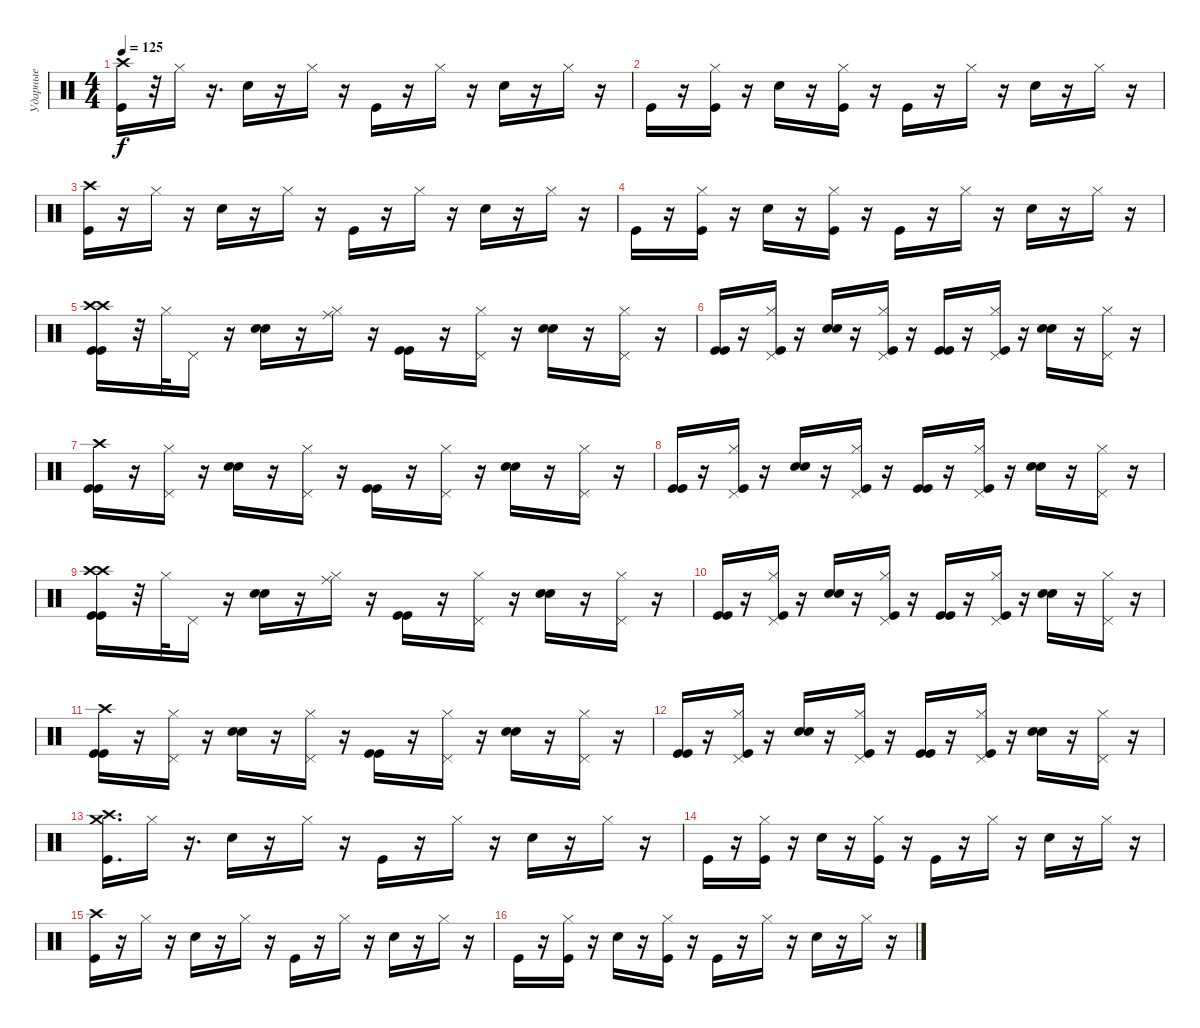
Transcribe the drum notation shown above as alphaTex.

\track ("Ударные" "Ударные") {instrument percussion}
\staff {score}
\articulation defaults
\ts (4 4)
\tempo 125
\clef neutral
\ks c
("Crash high (hit)" "Kick (hit)").16{dy f} r.32 "Hi-Hat (closed)".16 r.16{d} "Electric Snare (hit)".16 r.16 "Hi-Hat (closed)".16 r.16 "Kick (hit)".16 r.16 "Hi-Hat (closed)".16 r.16 "Electric Snare (hit)".16 r.16 "Hi-Hat (closed)".16 r.16 |
"Kick (hit)".16 r.16 ("Hi-Hat (closed)" "Kick (hit)").16 r.16 "Electric Snare (hit)".16 r.16 ("Hi-Hat (closed)" "Kick (hit)").16 r.16 "Kick (hit)".16 r.16 "Hi-Hat (closed)".16 r.16 "Electric Snare (hit)".16 r.16 "Hi-Hat (closed)".16 r.16 |
("Crash high (hit)" "Kick (hit)").16 r.16 "Hi-Hat (closed)".16 r.16 "Electric Snare (hit)".16 r.16 "Hi-Hat (closed)".16 r.16 "Kick (hit)".16 r.16 "Hi-Hat (closed)".16 r.16 "Electric Snare (hit)".16 r.16 "Hi-Hat (closed)".16 r.16 |
"Kick (hit)".16 r.16 ("Hi-Hat (closed)" "Kick (hit)").16 r.16 "Electric Snare (hit)".16 r.16 ("Hi-Hat (closed)" "Kick (hit)").16 r.16 "Kick (hit)".16 r.16 "Hi-Hat (closed)".16 r.16 "Electric Snare (hit)".16 r.16 "Hi-Hat (closed)".16 r.16 |
("Kick (hit)" "Crash high (hit)" "Crash high (hit)" "Kick (hit)").16 r.32 "Hi-Hat (closed)".32 "Pedal Hi-Hat (hit)".16 r.16 ("Electric Snare (hit)" "Electric Snare (hit)").16 r.16 ("Ride (middle)" "Hi-Hat (closed)").16 r.16 ("Kick (hit)" "Kick (hit)").16 r.16 ("Pedal Hi-Hat (hit)" "Hi-Hat (closed)").16 r.16 ("Electric Snare (hit)" "Electric Snare (hit)").16 r.16 ("Pedal Hi-Hat (hit)" "Hi-Hat (closed)").16 r.16 |
("Kick (hit)" "Kick (hit)").16 r.16 ("Pedal Hi-Hat (hit)" "Hi-Hat (closed)" "Kick (hit)").16 r.16 ("Electric Snare (hit)" "Electric Snare (hit)").16 r.16 ("Pedal Hi-Hat (hit)" "Hi-Hat (closed)" "Kick (hit)").16 r.16 ("Kick (hit)" "Kick (hit)").16 r.16 ("Kick (hit)" "Pedal Hi-Hat (hit)" "Hi-Hat (closed)").16 r.16 ("Electric Snare (hit)" "Electric Snare (hit)").16 r.16 ("Pedal Hi-Hat (hit)" "Hi-Hat (closed)").16 r.16 |
("Kick (hit)" "Crash high (hit)" "Kick (hit)").16 r.16 ("Pedal Hi-Hat (hit)" "Hi-Hat (closed)").16 r.16 ("Electric Snare (hit)" "Electric Snare (hit)").16 r.16 ("Pedal Hi-Hat (hit)" "Hi-Hat (closed)").16 r.16 ("Kick (hit)" "Kick (hit)").16 r.16 ("Pedal Hi-Hat (hit)" "Hi-Hat (closed)").16 r.16 ("Electric Snare (hit)" "Electric Snare (hit)").16 r.16 ("Pedal Hi-Hat (hit)" "Hi-Hat (closed)").16 r.16 |
("Kick (hit)" "Kick (hit)").16 r.16 ("Pedal Hi-Hat (hit)" "Hi-Hat (closed)" "Kick (hit)").16 r.16 ("Electric Snare (hit)" "Electric Snare (hit)").16 r.16 ("Pedal Hi-Hat (hit)" "Hi-Hat (closed)" "Kick (hit)").16 r.16 ("Kick (hit)" "Kick (hit)").16 r.16 ("Kick (hit)" "Pedal Hi-Hat (hit)" "Hi-Hat (closed)").16 r.16 ("Electric Snare (hit)" "Electric Snare (hit)").16 r.16 ("Pedal Hi-Hat (hit)" "Hi-Hat (closed)").16 r.16 |
("Kick (hit)" "Crash high (hit)" "Crash high (hit)" "Kick (hit)").16 r.32 "Hi-Hat (closed)".32 "Pedal Hi-Hat (hit)".16 r.16 ("Electric Snare (hit)" "Electric Snare (hit)").16 r.16 ("Ride (middle)" "Hi-Hat (closed)").16 r.16 ("Kick (hit)" "Kick (hit)").16 r.16 ("Pedal Hi-Hat (hit)" "Hi-Hat (closed)").16 r.16 ("Electric Snare (hit)" "Electric Snare (hit)").16 r.16 ("Pedal Hi-Hat (hit)" "Hi-Hat (closed)").16 r.16 |
("Kick (hit)" "Kick (hit)").16 r.16 ("Pedal Hi-Hat (hit)" "Hi-Hat (closed)" "Kick (hit)").16 r.16 ("Electric Snare (hit)" "Electric Snare (hit)").16 r.16 ("Pedal Hi-Hat (hit)" "Hi-Hat (closed)" "Kick (hit)").16 r.16 ("Kick (hit)" "Kick (hit)").16 r.16 ("Kick (hit)" "Pedal Hi-Hat (hit)" "Hi-Hat (closed)").16 r.16 ("Electric Snare (hit)" "Electric Snare (hit)").16 r.16 ("Pedal Hi-Hat (hit)" "Hi-Hat (closed)").16 r.16 |
("Kick (hit)" "Crash high (hit)" "Kick (hit)").16 r.16 ("Pedal Hi-Hat (hit)" "Hi-Hat (closed)").16 r.16 ("Electric Snare (hit)" "Electric Snare (hit)").16 r.16 ("Pedal Hi-Hat (hit)" "Hi-Hat (closed)").16 r.16 ("Kick (hit)" "Kick (hit)").16 r.16 ("Pedal Hi-Hat (hit)" "Hi-Hat (closed)").16 r.16 ("Electric Snare (hit)" "Electric Snare (hit)").16 r.16 ("Pedal Hi-Hat (hit)" "Hi-Hat (closed)").16 r.16 |
("Kick (hit)" "Kick (hit)").16 r.16 ("Pedal Hi-Hat (hit)" "Hi-Hat (closed)" "Kick (hit)").16 r.16 ("Electric Snare (hit)" "Electric Snare (hit)").16 r.16 ("Pedal Hi-Hat (hit)" "Hi-Hat (closed)" "Kick (hit)").16 r.16 ("Kick (hit)" "Kick (hit)").16 r.16 ("Kick (hit)" "Pedal Hi-Hat (hit)" "Hi-Hat (closed)").16 r.16 ("Electric Snare (hit)" "Electric Snare (hit)").16 r.16 ("Pedal Hi-Hat (hit)" "Hi-Hat (closed)").16 r.16 |
("Crash medium (hit)" "Crash high (hit)" "Kick (hit)").16{d} "Hi-Hat (closed)".16 r.16{d} "Electric Snare (hit)".16 r.16 "Hi-Hat (closed)".16 r.16 "Kick (hit)".16 r.16 "Hi-Hat (closed)".16 r.16 "Electric Snare (hit)".16 r.16 "Hi-Hat (closed)".16 r.16 |
"Kick (hit)".16 r.16 ("Hi-Hat (closed)" "Kick (hit)").16 r.16 "Electric Snare (hit)".16 r.16 ("Hi-Hat (closed)" "Kick (hit)").16 r.16 "Kick (hit)".16 r.16 "Hi-Hat (closed)".16 r.16 "Electric Snare (hit)".16 r.16 "Hi-Hat (closed)".16 r.16 |
("Crash high (hit)" "Kick (hit)").16 r.16 "Hi-Hat (closed)".16 r.16 "Electric Snare (hit)".16 r.16 "Hi-Hat (closed)".16 r.16 "Kick (hit)".16 r.16 "Hi-Hat (closed)".16 r.16 "Electric Snare (hit)".16 r.16 "Hi-Hat (closed)".16 r.16 |
"Kick (hit)".16 r.16 ("Hi-Hat (closed)" "Kick (hit)").16 r.16 "Electric Snare (hit)".16 r.16 ("Hi-Hat (closed)" "Kick (hit)").16 r.16 "Kick (hit)".16 r.16 "Hi-Hat (closed)".16 r.16 "Electric Snare (hit)".16 r.16 "Hi-Hat (closed)".16 r.16
